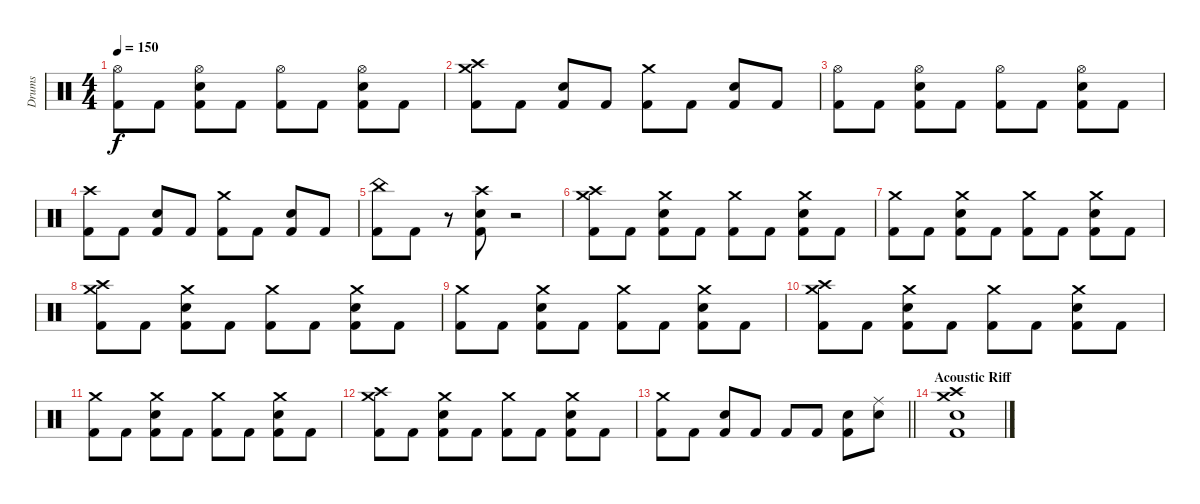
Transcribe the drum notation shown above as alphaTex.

\track ("Drums" "Drums") {instrument percussion}
\staff {score}
\articulation defaults
\ts (4 4)
\tempo 150
\clef neutral
\ks c
("Hi-Hat (open)" "Kick (hit) 2").8{dy f} "Kick (hit) 2".8 ("Hi-Hat (open)" "Electric Snare (hit)" "Kick (hit) 2").8 "Kick (hit) 2".8 ("Hi-Hat (open)" "Kick (hit) 2").8 "Kick (hit) 2".8 ("Hi-Hat (open)" "Electric Snare (hit)" "Kick (hit) 2").8 "Kick (hit) 2".8 |
("Crash medium (hit)" "Crash high (hit)" "Kick (hit) 2").8 "Kick (hit) 2".8 ("Electric Snare (hit)" "Kick (hit) 2").8 "Kick (hit) 2".8 ("Crash medium (hit)" "Kick (hit) 2").8 "Kick (hit) 2".8 ("Electric Snare (hit)" "Kick (hit) 2").8 "Kick (hit) 2".8 |
("Hi-Hat (open)" "Kick (hit) 2").8 "Kick (hit) 2".8 ("Hi-Hat (open)" "Electric Snare (hit)" "Kick (hit) 2").8 "Kick (hit) 2".8 ("Hi-Hat (open)" "Kick (hit) 2").8 "Kick (hit) 2".8 ("Hi-Hat (open)" "Electric Snare (hit)" "Kick (hit) 2").8 "Kick (hit) 2".8 |
("Crash high (hit)" "Kick (hit) 2").8 "Kick (hit) 2".8 ("Electric Snare (hit)" "Kick (hit) 2").8 "Kick (hit) 2".8 ("Crash medium (hit)" "Kick (hit) 2").8 "Kick (hit) 2".8 ("Electric Snare (hit)" "Kick (hit) 2").8 "Kick (hit) 2".8 |
("China (hit)" "Kick (hit) 2").8 "Kick (hit) 2".8 r.8 ("Crash high (hit)" "Electric Snare (hit)" "Kick (hit) 2").8 r.2 |
("Crash medium (hit)" "Crash high (hit)" "Kick (hit) 2").8 "Kick (hit) 2".8 ("Crash medium (hit)" "Electric Snare (hit)" "Kick (hit) 2").8 "Kick (hit) 2".8 ("Crash medium (hit)" "Kick (hit) 2").8 "Kick (hit) 2".8 ("Crash medium (hit)" "Electric Snare (hit)" "Kick (hit) 2").8 "Kick (hit) 2".8 |
("Crash medium (hit)" "Kick (hit) 2").8 "Kick (hit) 2".8 ("Crash medium (hit)" "Electric Snare (hit)" "Kick (hit) 2").8 "Kick (hit) 2".8 ("Crash medium (hit)" "Kick (hit) 2").8 "Kick (hit) 2".8 ("Crash medium (hit)" "Electric Snare (hit)" "Kick (hit) 2").8 "Kick (hit) 2".8 |
("Crash medium (hit)" "Crash high (hit)" "Kick (hit) 2").8 "Kick (hit) 2".8 ("Crash medium (hit)" "Electric Snare (hit)" "Kick (hit) 2").8 "Kick (hit) 2".8 ("Crash medium (hit)" "Kick (hit) 2").8 "Kick (hit) 2".8 ("Crash medium (hit)" "Electric Snare (hit)" "Kick (hit) 2").8 "Kick (hit) 2".8 |
("Crash medium (hit)" "Kick (hit) 2").8 "Kick (hit) 2".8 ("Crash medium (hit)" "Electric Snare (hit)" "Kick (hit) 2").8 "Kick (hit) 2".8 ("Crash medium (hit)" "Kick (hit) 2").8 "Kick (hit) 2".8 ("Crash medium (hit)" "Electric Snare (hit)" "Kick (hit) 2").8 "Kick (hit) 2".8 |
("Crash medium (hit)" "Crash high (hit)" "Kick (hit) 2").8 "Kick (hit) 2".8 ("Crash medium (hit)" "Electric Snare (hit)" "Kick (hit) 2").8 "Kick (hit) 2".8 ("Crash medium (hit)" "Kick (hit) 2").8 "Kick (hit) 2".8 ("Crash medium (hit)" "Electric Snare (hit)" "Kick (hit) 2").8 "Kick (hit) 2".8 |
("Crash medium (hit)" "Kick (hit) 2").8 "Kick (hit) 2".8 ("Crash medium (hit)" "Electric Snare (hit)" "Kick (hit) 2").8 "Kick (hit) 2".8 ("Crash medium (hit)" "Kick (hit) 2").8 "Kick (hit) 2".8 ("Crash medium (hit)" "Electric Snare (hit)" "Kick (hit) 2").8 "Kick (hit) 2".8 |
("Crash medium (hit)" "Crash high (hit)" "Kick (hit) 2").8 "Kick (hit) 2".8 ("Crash medium (hit)" "Electric Snare (hit)" "Kick (hit) 2").8 "Kick (hit) 2".8 ("Crash medium (hit)" "Kick (hit) 2").8 "Kick (hit) 2".8 ("Crash medium (hit)" "Electric Snare (hit)" "Kick (hit) 2").8 "Kick (hit) 2".8 |
\barLineRight lightlight
("Crash medium (hit)" "Kick (hit) 2").8 "Kick (hit) 2".8 ("Electric Snare (hit)" "Kick (hit) 2").8 "Kick (hit) 2".8 "Kick (hit) 2".8 "Kick (hit) 2".8 ("Electric Snare (hit)" "Kick (hit) 2").8 ("Ride (middle)" "Electric Snare (hit)").8 |
\section ("" "Acoustic Riff")
("Crash high (hit)" "Crash medium (hit)" "Electric Snare (hit)" "Kick (hit) 2").1
